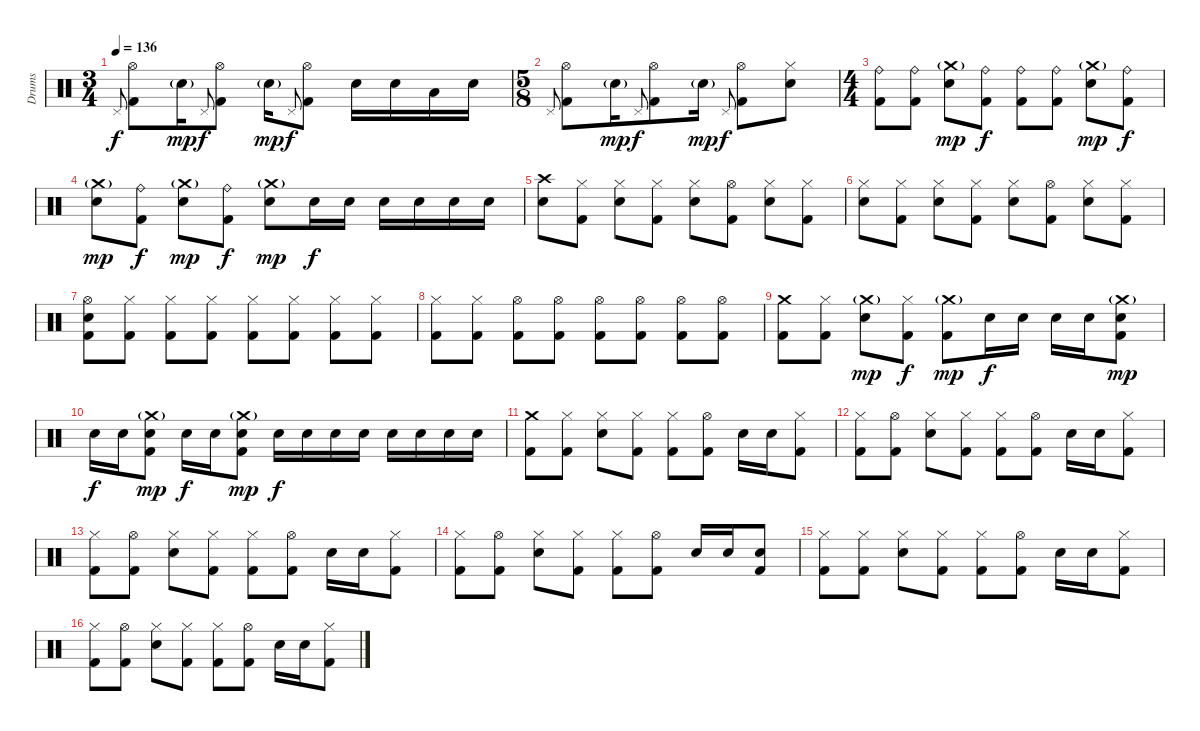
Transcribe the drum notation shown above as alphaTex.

\track ("Drums" "Drums") {instrument percussion}
\staff {score}
\articulation defaults
\ts (3 4)
\tempo 136
\clef neutral
\ks c "Pedal Hi-Hat (hit)".8{gr onbeat dy f}
("Hi-Hat (open)" "Kick (hit) 2").8 "Electric Snare (hit)"{g}.16{dy mp} "Pedal Hi-Hat (hit)".8{gr onbeat dy f} ("Hi-Hat (open)" "Kick (hit) 2").8 "Electric Snare (hit)"{g}.16{dy mp} "Pedal Hi-Hat (hit)".8{gr onbeat dy f} ("Hi-Hat (open)" "Kick (hit) 2").8 "Electric Snare (hit)".16 "Electric Snare (hit)".16 "Low Tom (hit)".16 "Electric Snare (hit)".16 |
\ts (5 8)
"Pedal Hi-Hat (hit)".8{gr onbeat} ("Hi-Hat (open)" "Kick (hit) 2").8 "Electric Snare (hit)"{g}.16{dy mp} "Pedal Hi-Hat (hit)".8{gr onbeat dy f} ("Hi-Hat (open)" "Kick (hit) 2").8 "Electric Snare (hit)"{g}.16{dy mp} "Pedal Hi-Hat (hit)".8{gr onbeat dy f} ("Hi-Hat (open)" "Kick (hit) 2").8 ("Hi-Hat (closed)" "Electric Snare (hit)").8 |
\ts (4 4)
("Ride (bell)" "Kick (hit) 2").8 ("Ride (bell)" "Kick (hit) 2").8 ("Crash medium (hit)"{g} "Electric Snare (hit)").8{dy mp} ("Ride (bell)" "Kick (hit) 2").8{dy f} ("Ride (bell)" "Kick (hit) 2").8 ("Ride (bell)" "Kick (hit) 2").8 ("Crash medium (hit)"{g} "Electric Snare (hit)").8{dy mp} ("Ride (bell)" "Kick (hit) 2").8{dy f} |
("Crash medium (hit)"{g} "Electric Snare (hit)").8{dy mp} ("Ride (bell)" "Kick (hit) 2").8{dy f} ("Crash medium (hit)"{g} "Electric Snare (hit)").8{dy mp} ("Ride (bell)" "Kick (hit) 2").8{dy f} ("Crash medium (hit)"{g} "Electric Snare (hit)").8{dy mp} "Electric Snare (hit)".16{dy f} "Electric Snare (hit)".16 "Electric Snare (hit)".16 "Electric Snare (hit)".16 "Electric Snare (hit)".16 "Electric Snare (hit)".16 |
("Crash high (hit)" "Electric Snare (hit)").8 ("Hi-Hat (closed)" "Kick (hit) 2").8 ("Hi-Hat (closed)" "Electric Snare (hit)").8 ("Hi-Hat (closed)" "Kick (hit) 2").8 ("Hi-Hat (closed)" "Electric Snare (hit)").8 ("Hi-Hat (open)" "Kick (hit) 2").8 ("Hi-Hat (closed)" "Electric Snare (hit)").8 ("Hi-Hat (closed)" "Kick (hit) 2").8 |
("Hi-Hat (closed)" "Electric Snare (hit)").8 ("Hi-Hat (closed)" "Kick (hit) 2").8 ("Hi-Hat (closed)" "Electric Snare (hit)").8 ("Hi-Hat (closed)" "Kick (hit) 2").8 ("Hi-Hat (closed)" "Electric Snare (hit)").8 ("Hi-Hat (open)" "Kick (hit) 2").8 ("Hi-Hat (closed)" "Electric Snare (hit)").8 ("Hi-Hat (closed)" "Kick (hit) 2").8 |
("Hi-Hat (open)" "Electric Snare (hit)" "Kick (hit) 2").8 ("Hi-Hat (closed)" "Kick (hit) 2").8 ("Hi-Hat (closed)" "Kick (hit) 2").8 ("Hi-Hat (closed)" "Kick (hit) 2").8 ("Hi-Hat (closed)" "Kick (hit) 2").8 ("Hi-Hat (closed)" "Kick (hit) 2").8 ("Hi-Hat (closed)" "Kick (hit) 2").8 ("Hi-Hat (closed)" "Kick (hit) 2").8 |
("Hi-Hat (closed)" "Kick (hit) 2").8 ("Hi-Hat (closed)" "Kick (hit) 2").8 ("Hi-Hat (open)" "Kick (hit) 2").8 ("Hi-Hat (open)" "Kick (hit) 2").8 ("Hi-Hat (open)" "Kick (hit) 2").8 ("Hi-Hat (open)" "Kick (hit) 2").8 ("Hi-Hat (open)" "Kick (hit) 2").8 ("Hi-Hat (open)" "Kick (hit) 2").8 |
("Crash medium (hit)" "Kick (hit) 2").8 ("Hi-Hat (closed)" "Kick (hit) 2").8 ("Crash medium (hit)"{g} "Electric Snare (hit)").8{dy mp} ("Hi-Hat (closed)" "Kick (hit) 2").8{dy f} ("Crash medium (hit)"{g} "Kick (hit) 2").8{dy mp} "Electric Snare (hit)".16{dy f} "Electric Snare (hit)".16 "Electric Snare (hit)".16 "Electric Snare (hit)".16 ("Crash medium (hit)"{g} "Electric Snare (hit)" "Kick (hit) 2").8{dy mp} |
"Electric Snare (hit)".16{dy f} "Electric Snare (hit)".16 ("Crash medium (hit)"{g} "Electric Snare (hit)" "Kick (hit) 2").8{dy mp} "Electric Snare (hit)".16{dy f} "Electric Snare (hit)".16 ("Crash medium (hit)"{g} "Electric Snare (hit)" "Kick (hit) 2").8{dy mp} "Electric Snare (hit)".16{dy f} "Electric Snare (hit)".16 "Electric Snare (hit)".16 "Electric Snare (hit)".16 "Electric Snare (hit)".16 "Electric Snare (hit)".16 "Electric Snare (hit)".16 "Electric Snare (hit)".16 |
("Crash medium (hit)" "Kick (hit) 2").8 ("Hi-Hat (closed)" "Kick (hit) 2").8 ("Hi-Hat (closed)" "Electric Snare (hit)").8 ("Hi-Hat (closed)" "Kick (hit) 2").8 ("Hi-Hat (closed)" "Kick (hit) 2").8 ("Hi-Hat (open)" "Kick (hit) 2").8 "Electric Snare (hit)".16 "Electric Snare (hit)".16 ("Hi-Hat (closed)" "Kick (hit) 2").8 |
("Hi-Hat (closed)" "Kick (hit) 2").8 ("Hi-Hat (open)" "Kick (hit) 2").8 ("Hi-Hat (closed)" "Electric Snare (hit)").8 ("Hi-Hat (closed)" "Kick (hit) 2").8 ("Hi-Hat (closed)" "Kick (hit) 2").8 ("Hi-Hat (open)" "Kick (hit) 2").8 "Electric Snare (hit)".16 "Electric Snare (hit)".16 ("Hi-Hat (closed)" "Kick (hit) 2").8 |
("Hi-Hat (closed)" "Kick (hit) 2").8 ("Hi-Hat (open)" "Kick (hit) 2").8 ("Hi-Hat (closed)" "Electric Snare (hit)").8 ("Hi-Hat (closed)" "Kick (hit) 2").8 ("Hi-Hat (closed)" "Kick (hit) 2").8 ("Hi-Hat (open)" "Kick (hit) 2").8 "Electric Snare (hit)".16 "Electric Snare (hit)".16 ("Hi-Hat (closed)" "Kick (hit) 2").8 |
("Hi-Hat (closed)" "Kick (hit) 2").8 ("Hi-Hat (open)" "Kick (hit) 2").8 ("Hi-Hat (closed)" "Electric Snare (hit)").8 ("Hi-Hat (closed)" "Kick (hit) 2").8 ("Hi-Hat (closed)" "Kick (hit) 2").8 ("Hi-Hat (open)" "Kick (hit) 2").8 "Electric Snare (hit)".16 "Electric Snare (hit)".16 ("Electric Snare (hit)" "Kick (hit) 2").8 |
("Hi-Hat (closed)" "Kick (hit) 2").8 ("Hi-Hat (closed)" "Kick (hit) 2").8 ("Hi-Hat (closed)" "Electric Snare (hit)").8 ("Hi-Hat (closed)" "Kick (hit) 2").8 ("Hi-Hat (closed)" "Kick (hit) 2").8 ("Hi-Hat (open)" "Kick (hit) 2").8 "Electric Snare (hit)".16 "Electric Snare (hit)".16 ("Hi-Hat (closed)" "Kick (hit) 2").8 |
("Hi-Hat (closed)" "Kick (hit) 2").8 ("Hi-Hat (open)" "Kick (hit) 2").8 ("Hi-Hat (closed)" "Electric Snare (hit)").8 ("Hi-Hat (closed)" "Kick (hit) 2").8 ("Hi-Hat (closed)" "Kick (hit) 2").8 ("Hi-Hat (open)" "Kick (hit) 2").8 "Electric Snare (hit)".16 "Electric Snare (hit)".16 ("Hi-Hat (closed)" "Kick (hit) 2").8
